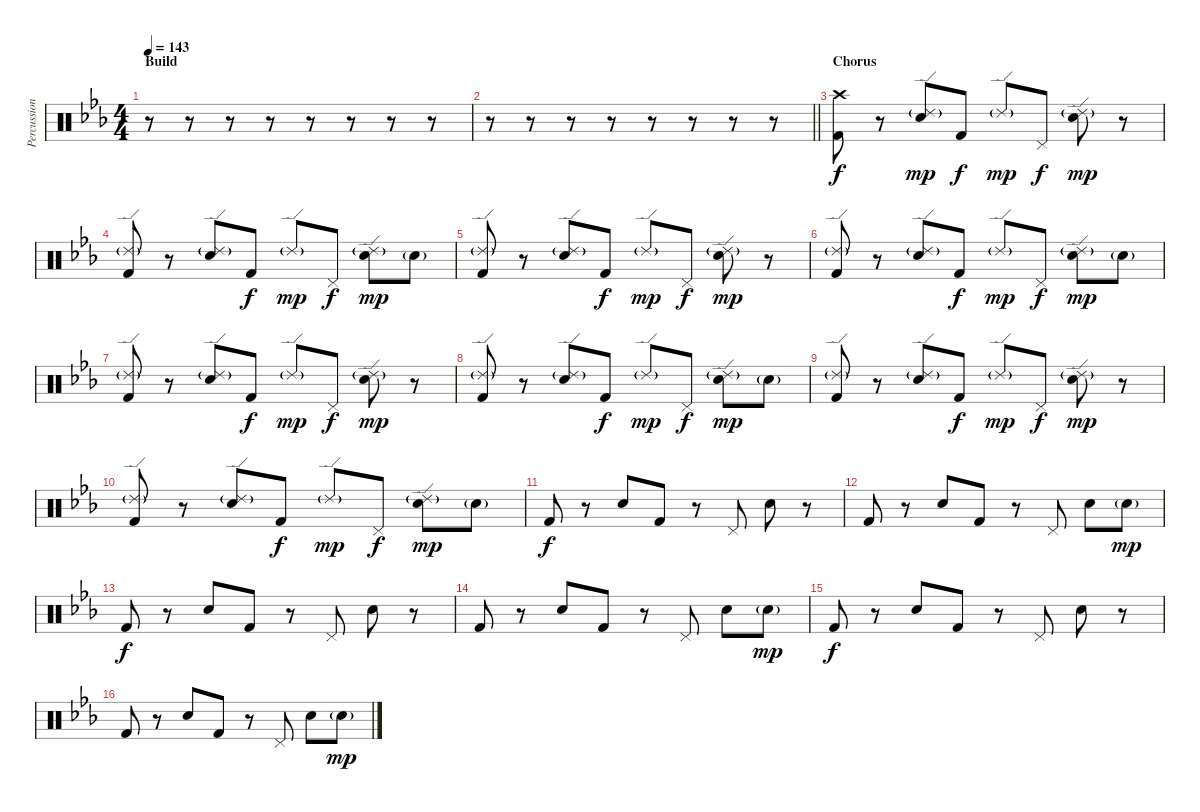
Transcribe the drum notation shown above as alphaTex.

\track ("Percussion" "Percussion") {instrument percussion}
\staff {score}
\articulation defaults
\ts (4 4)
\section ("" "Build")
\tempo 143
\clef neutral
\ks cminor
r.8{dy mp} r.8 r.8 r.8 r.8 r.8 r.8 r.8 |
\barLineRight lightlight
r.8 r.8 r.8 r.8 r.8 r.8 r.8 r.8 |
\section ("" "Chorus")
("Crash high (hit)" "Kick (hit) 2").8{dy f} r.8 ("Ride (edge) 2"{g} "Electric Snare (hit)").8{dy mp} "Kick (hit) 2".8{dy f} "Ride (edge) 2"{g}.8{dy mp} "Pedal Hi-Hat (hit)".8{dy f} ("Ride (edge) 2"{g} "Electric Snare (hit)").8{dy mp} r.8 |
("Ride (edge) 2"{g} "Kick (hit) 2").8 r.8 ("Ride (edge) 2"{g} "Electric Snare (hit)").8 "Kick (hit) 2".8{dy f} "Ride (edge) 2"{g}.8{dy mp} "Pedal Hi-Hat (hit)".8{dy f} ("Ride (edge) 2"{g} "Electric Snare (hit)").8{dy mp} "Electric Snare (hit)"{g}.8 |
("Ride (edge) 2"{g} "Kick (hit) 2").8 r.8 ("Ride (edge) 2"{g} "Electric Snare (hit)").8 "Kick (hit) 2".8{dy f} "Ride (edge) 2"{g}.8{dy mp} "Pedal Hi-Hat (hit)".8{dy f} ("Ride (edge) 2"{g} "Electric Snare (hit)").8{dy mp} r.8 |
("Ride (edge) 2"{g} "Kick (hit) 2").8 r.8 ("Ride (edge) 2"{g} "Electric Snare (hit)").8 "Kick (hit) 2".8{dy f} "Ride (edge) 2"{g}.8{dy mp} "Pedal Hi-Hat (hit)".8{dy f} ("Ride (edge) 2"{g} "Electric Snare (hit)").8{dy mp} "Electric Snare (hit)"{g}.8 |
("Ride (edge) 2"{g} "Kick (hit) 2").8 r.8 ("Ride (edge) 2"{g} "Electric Snare (hit)").8 "Kick (hit) 2".8{dy f} "Ride (edge) 2"{g}.8{dy mp} "Pedal Hi-Hat (hit)".8{dy f} ("Ride (edge) 2"{g} "Electric Snare (hit)").8{dy mp} r.8 |
("Ride (edge) 2"{g} "Kick (hit) 2").8 r.8 ("Ride (edge) 2"{g} "Electric Snare (hit)").8 "Kick (hit) 2".8{dy f} "Ride (edge) 2"{g}.8{dy mp} "Pedal Hi-Hat (hit)".8{dy f} ("Ride (edge) 2"{g} "Electric Snare (hit)").8{dy mp} "Electric Snare (hit)"{g}.8 |
("Ride (edge) 2"{g} "Kick (hit) 2").8 r.8 ("Ride (edge) 2"{g} "Electric Snare (hit)").8 "Kick (hit) 2".8{dy f} "Ride (edge) 2"{g}.8{dy mp} "Pedal Hi-Hat (hit)".8{dy f} ("Ride (edge) 2"{g} "Electric Snare (hit)").8{dy mp} r.8 |
("Ride (edge) 2"{g} "Kick (hit) 2").8 r.8 ("Ride (edge) 2"{g} "Electric Snare (hit)").8 "Kick (hit) 2".8{dy f} "Ride (edge) 2"{g}.8{dy mp} "Pedal Hi-Hat (hit)".8{dy f} ("Ride (edge) 2"{g} "Electric Snare (hit)").8{dy mp} "Electric Snare (hit)"{g}.8 |
"Kick (hit) 2".8{dy f} r.8 "Electric Snare (hit)".8 "Kick (hit) 2".8 r.8 "Pedal Hi-Hat (hit)".8 "Electric Snare (hit)".8 r.8 |
"Kick (hit) 2".8 r.8 "Electric Snare (hit)".8 "Kick (hit) 2".8 r.8 "Pedal Hi-Hat (hit)".8 "Electric Snare (hit)".8 "Electric Snare (hit)"{g}.8{dy mp} |
"Kick (hit) 2".8{dy f} r.8 "Electric Snare (hit)".8 "Kick (hit) 2".8 r.8 "Pedal Hi-Hat (hit)".8 "Electric Snare (hit)".8 r.8 |
"Kick (hit) 2".8 r.8 "Electric Snare (hit)".8 "Kick (hit) 2".8 r.8 "Pedal Hi-Hat (hit)".8 "Electric Snare (hit)".8 "Electric Snare (hit)"{g}.8{dy mp} |
"Kick (hit) 2".8{dy f} r.8 "Electric Snare (hit)".8 "Kick (hit) 2".8 r.8 "Pedal Hi-Hat (hit)".8 "Electric Snare (hit)".8 r.8 |
"Kick (hit) 2".8 r.8 "Electric Snare (hit)".8 "Kick (hit) 2".8 r.8 "Pedal Hi-Hat (hit)".8 "Electric Snare (hit)".8 "Electric Snare (hit)"{g}.8{dy mp}
